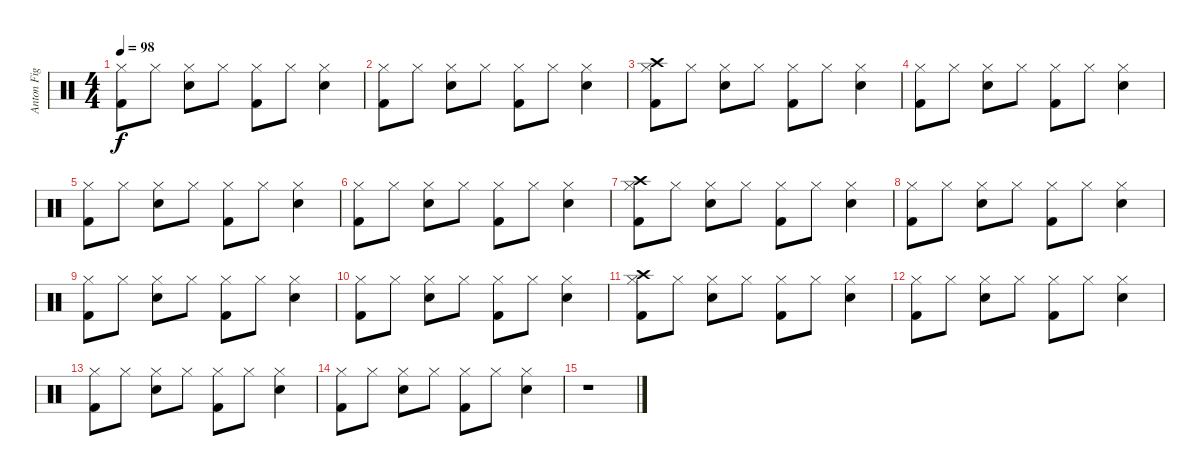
\track ("Anton Fig" "Anton Fig") {instrument percussion}
\staff {score}
\articulation defaults
\ts (4 4)
\tempo 98
\clef neutral
\ks c
("Hi-Hat (closed)" "Kick (hit) 2").8{dy f} "Hi-Hat (closed)".8 ("Hi-Hat (closed)" "Snare (hit) 2").8 "Hi-Hat (closed)".8 ("Hi-Hat (closed)" "Kick (hit) 2").8 "Hi-Hat (closed)".8 ("Hi-Hat (closed)" "Snare (hit) 2").4 |
("Hi-Hat (closed)" "Kick (hit) 2").8 "Hi-Hat (closed)".8 ("Hi-Hat (closed)" "Snare (hit) 2").8 "Hi-Hat (closed)".8 ("Hi-Hat (closed)" "Kick (hit) 2").8 "Hi-Hat (closed)".8 ("Hi-Hat (closed)" "Snare (hit) 2").4 |
("Hi-Hat (closed)" "Crash high (hit)" "Kick (hit) 2").8 "Hi-Hat (closed)".8 ("Hi-Hat (closed)" "Snare (hit) 2").8 "Hi-Hat (closed)".8 ("Hi-Hat (closed)" "Kick (hit) 2").8 "Hi-Hat (closed)".8 ("Hi-Hat (closed)" "Snare (hit) 2").4 |
("Hi-Hat (closed)" "Kick (hit) 2").8 "Hi-Hat (closed)".8 ("Hi-Hat (closed)" "Snare (hit) 2").8 "Hi-Hat (closed)".8 ("Hi-Hat (closed)" "Kick (hit) 2").8 "Hi-Hat (closed)".8 ("Hi-Hat (closed)" "Snare (hit) 2").4 |
("Hi-Hat (closed)" "Kick (hit) 2").8 "Hi-Hat (closed)".8 ("Hi-Hat (closed)" "Snare (hit) 2").8 "Hi-Hat (closed)".8 ("Hi-Hat (closed)" "Kick (hit) 2").8 "Hi-Hat (closed)".8 ("Hi-Hat (closed)" "Snare (hit) 2").4 |
("Hi-Hat (closed)" "Kick (hit) 2").8 "Hi-Hat (closed)".8 ("Hi-Hat (closed)" "Snare (hit) 2").8 "Hi-Hat (closed)".8 ("Hi-Hat (closed)" "Kick (hit) 2").8 "Hi-Hat (closed)".8 ("Hi-Hat (closed)" "Snare (hit) 2").4 |
("Hi-Hat (closed)" "Crash high (hit)" "Kick (hit) 2").8 "Hi-Hat (closed)".8 ("Hi-Hat (closed)" "Snare (hit) 2").8 "Hi-Hat (closed)".8 ("Hi-Hat (closed)" "Kick (hit) 2").8 "Hi-Hat (closed)".8 ("Hi-Hat (closed)" "Snare (hit) 2").4 |
("Hi-Hat (closed)" "Kick (hit) 2").8 "Hi-Hat (closed)".8 ("Hi-Hat (closed)" "Snare (hit) 2").8 "Hi-Hat (closed)".8 ("Hi-Hat (closed)" "Kick (hit) 2").8 "Hi-Hat (closed)".8 ("Hi-Hat (closed)" "Snare (hit) 2").4 |
("Hi-Hat (closed)" "Kick (hit) 2").8 "Hi-Hat (closed)".8 ("Hi-Hat (closed)" "Snare (hit) 2").8 "Hi-Hat (closed)".8 ("Hi-Hat (closed)" "Kick (hit) 2").8 "Hi-Hat (closed)".8 ("Hi-Hat (closed)" "Snare (hit) 2").4 |
("Hi-Hat (closed)" "Kick (hit) 2").8 "Hi-Hat (closed)".8 ("Hi-Hat (closed)" "Snare (hit) 2").8 "Hi-Hat (closed)".8 ("Hi-Hat (closed)" "Kick (hit) 2").8 "Hi-Hat (closed)".8 ("Hi-Hat (closed)" "Snare (hit) 2").4 |
("Hi-Hat (closed)" "Crash high (hit)" "Kick (hit) 2").8 "Hi-Hat (closed)".8 ("Hi-Hat (closed)" "Snare (hit) 2").8 "Hi-Hat (closed)".8 ("Hi-Hat (closed)" "Kick (hit) 2").8 "Hi-Hat (closed)".8 ("Hi-Hat (closed)" "Snare (hit) 2").4 |
("Hi-Hat (closed)" "Kick (hit) 2").8 "Hi-Hat (closed)".8 ("Hi-Hat (closed)" "Snare (hit) 2").8 "Hi-Hat (closed)".8 ("Hi-Hat (closed)" "Kick (hit) 2").8 "Hi-Hat (closed)".8 ("Hi-Hat (closed)" "Snare (hit) 2").4 |
("Hi-Hat (closed)" "Kick (hit) 2").8 "Hi-Hat (closed)".8 ("Hi-Hat (closed)" "Snare (hit) 2").8 "Hi-Hat (closed)".8 ("Hi-Hat (closed)" "Kick (hit) 2").8 "Hi-Hat (closed)".8 ("Hi-Hat (closed)" "Snare (hit) 2").4 |
("Hi-Hat (closed)" "Kick (hit) 2").8 "Hi-Hat (closed)".8 ("Hi-Hat (closed)" "Snare (hit) 2").8 "Hi-Hat (closed)".8 ("Hi-Hat (closed)" "Kick (hit) 2").8 "Hi-Hat (closed)".8 ("Hi-Hat (closed)" "Snare (hit) 2").4 |
r.1
